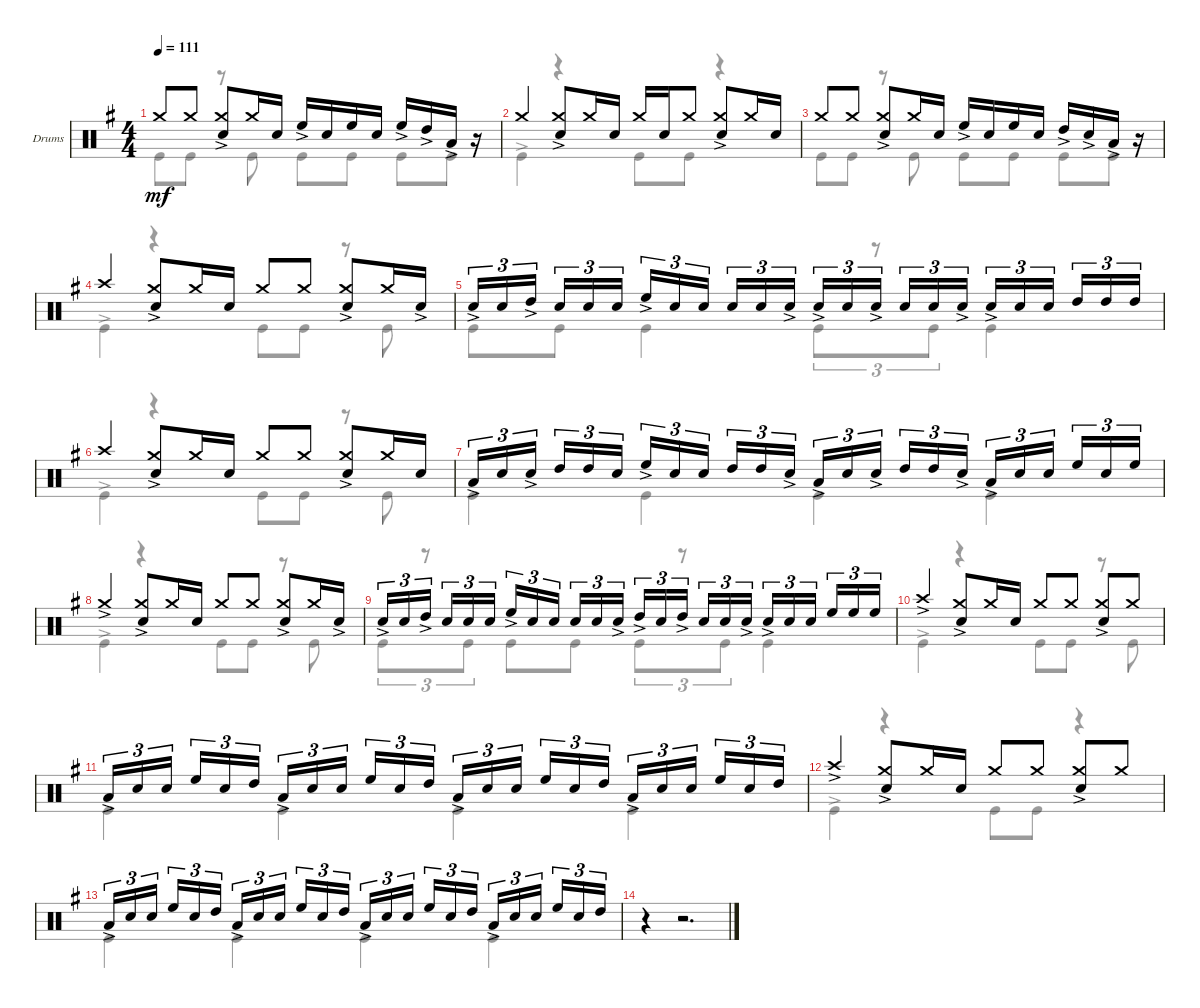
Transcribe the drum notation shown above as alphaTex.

\bracketExtendMode groupsimilarinstruments
\firstSystemTrackNameOrientation horizontal
\otherSystemsTrackNameOrientation horizontal
\track ("Drumkit" "Drums") {instrument percussion}
\staff {score}
\articulation defaults
\voice
\ts (4 4)
\tempo 111
\clef neutral
\ks g "Crash medium (hit)".8{dy mf} "Crash medium (hit)".8
("Crash medium (hit)" "Snare (hit) 2"{ac}).8 "Crash medium (hit)".16 "Snare (hit) 2".16 "High Floor Tom (hit)"{ac}.16 "Snare (hit) 2".16 "High Floor Tom (hit)".16 "Snare (hit) 2".16 "High Floor Tom (hit)"{ac}.16 "High Tom (hit)"{ac}.16 "Low Tom (hit)"{ac}.16 r.16 |
"Crash medium (hit)".4 ("Crash medium (hit)" "Snare (hit) 2"{ac}).8 "Crash medium (hit)".16 "Snare (hit) 2".16 "Crash medium (hit)".16 "Snare (hit) 2".16 "Crash medium (hit)".8 ("Crash medium (hit)" "Snare (hit) 2"{ac}).8 "Crash medium (hit)".16 "Snare (hit) 2".16 |
"Crash medium (hit)".8 "Crash medium (hit)".8 ("Crash medium (hit)" "Snare (hit) 2"{ac}).8 "Crash medium (hit)".16 "Snare (hit) 2".16 "High Floor Tom (hit)"{ac}.16 "Snare (hit) 2".16 "High Floor Tom (hit)".16 "Snare (hit) 2".16 "High Tom (hit)"{ac}.16 "Snare (hit) 2"{ac}.16 "Low Tom (hit)"{ac}.16 r.16 |
"Crash high (hit)".4 ("Crash medium (hit)" "Snare (hit) 2"{ac}).8 "Crash medium (hit)".16 "Snare (hit) 2".16 "Crash medium (hit)".8 "Crash medium (hit)".8 ("Crash medium (hit)" "Snare (hit) 2"{ac}).8 "Crash medium (hit)".16 "Snare (hit) 2"{ac}.16 |
"Snare (hit) 2"{ac}.16{tu (3 2)} "Snare (hit) 2".16{tu (3 2)} "High Tom (hit)"{ac}.16{tu (3 2)} "Snare (hit) 2".16{tu (3 2)} "Snare (hit) 2".16{tu (3 2)} "Snare (hit) 2".16{tu (3 2)} "High Floor Tom (hit)"{ac}.16{tu (3 2)} "Snare (hit) 2".16{tu (3 2)} "Snare (hit) 2".16{tu (3 2)} "Snare (hit) 2".16{tu (3 2)} "Snare (hit) 2".16{tu (3 2)} "Snare (hit) 2"{ac}.16{tu (3 2)} "Snare (hit) 2"{ac}.16{tu (3 2)} "Snare (hit) 2".16{tu (3 2)} "Snare (hit) 2"{ac}.16{tu (3 2)} "Snare (hit) 2".16{tu (3 2)} "Snare (hit) 2".16{tu (3 2)} "Snare (hit) 2"{ac}.16{tu (3 2)} "Snare (hit) 2"{ac}.16{tu (3 2)} "Snare (hit) 2".16{tu (3 2)} "Snare (hit) 2".16{tu (3 2)} "High Tom (hit)".16{tu (3 2)} "High Tom (hit)".16{tu (3 2)} "High Tom (hit)".16{tu (3 2)} |
"Crash high (hit)".4 ("Crash medium (hit)" "Snare (hit) 2"{ac}).8 "Crash medium (hit)".16 "Snare (hit) 2".16 "Crash medium (hit)".8 "Crash medium (hit)".8 ("Crash medium (hit)" "Snare (hit) 2"{ac}).8 "Crash medium (hit)".16 "Snare (hit) 2".16 |
"Low Tom (hit)"{ac}.16{tu (3 2)} "Snare (hit) 2".16{tu (3 2)} "Snare (hit) 2"{ac}.16{tu (3 2)} "High Tom (hit)".16{tu (3 2)} "High Tom (hit)".16{tu (3 2)} "Snare (hit) 2".16{tu (3 2)} "High Floor Tom (hit)"{ac}.16{tu (3 2)} "Snare (hit) 2".16{tu (3 2)} "Snare (hit) 2".16{tu (3 2)} "High Tom (hit)".16{tu (3 2)} "High Tom (hit)".16{tu (3 2)} "Snare (hit) 2"{ac}.16{tu (3 2)} "Low Tom (hit)"{ac}.16{tu (3 2)} "Snare (hit) 2".16{tu (3 2)} "Snare (hit) 2"{ac}.16{tu (3 2)} "High Tom (hit)".16{tu (3 2)} "High Tom (hit)".16{tu (3 2)} "Snare (hit) 2"{ac}.16{tu (3 2)} "Low Tom (hit)"{ac}.16{tu (3 2)} "Snare (hit) 2".16{tu (3 2)} "Snare (hit) 2".16{tu (3 2)} "High Floor Tom (hit)".16{tu (3 2)} "Snare (hit) 2".16{tu (3 2)} "High Floor Tom (hit)".16{tu (3 2)} |
"Crash medium (hit)"{ac}.4 ("Crash medium (hit)" "Snare (hit) 2"{ac}).8 "Crash medium (hit)".16 "Snare (hit) 2".16 "Crash medium (hit)".8 "Crash medium (hit)".8 ("Crash medium (hit)" "Snare (hit) 2"{ac}).8 "Crash medium (hit)".16 "Snare (hit) 2"{ac}.16 |
"Snare (hit) 2"{ac}.16{tu (3 2)} "Snare (hit) 2".16{tu (3 2)} "High Tom (hit)"{ac}.16{tu (3 2)} "Snare (hit) 2".16{tu (3 2)} "Snare (hit) 2".16{tu (3 2)} "Snare (hit) 2".16{tu (3 2)} "High Floor Tom (hit)"{ac}.16{tu (3 2)} "Snare (hit) 2".16{tu (3 2)} "Snare (hit) 2".16{tu (3 2)} "Snare (hit) 2".16{tu (3 2)} "Snare (hit) 2".16{tu (3 2)} "Snare (hit) 2"{ac}.16{tu (3 2)} "High Tom (hit)"{ac}.16{tu (3 2)} "Snare (hit) 2".16{tu (3 2)} "High Tom (hit)"{ac}.16{tu (3 2)} "Snare (hit) 2".16{tu (3 2)} "Snare (hit) 2".16{tu (3 2)} "Snare (hit) 2"{ac}.16{tu (3 2)} "Snare (hit) 2"{ac}.16{tu (3 2)} "Snare (hit) 2".16{tu (3 2)} "Snare (hit) 2".16{tu (3 2)} "High Floor Tom (hit)".16{tu (3 2)} "High Floor Tom (hit)".16{tu (3 2)} "High Floor Tom (hit)".16{tu (3 2)} |
"Crash high (hit)"{ac}.4 ("Crash medium (hit)" "Snare (hit) 2"{ac}).8 "Crash medium (hit)".16 "Snare (hit) 2".16 "Crash medium (hit)".8 "Crash medium (hit)".8 ("Crash medium (hit)" "Snare (hit) 2"{ac}).8 "Crash medium (hit)".8 |
"Low Tom (hit)"{ac}.16{tu (3 2)} "Snare (hit) 2".16{tu (3 2)} "Snare (hit) 2".16{tu (3 2)} "High Floor Tom (hit)".16{tu (3 2)} "Snare (hit) 2".16{tu (3 2)} "High Tom (hit)".16{tu (3 2)} "Low Tom (hit)"{ac}.16{tu (3 2)} "Snare (hit) 2".16{tu (3 2)} "Snare (hit) 2".16{tu (3 2)} "High Floor Tom (hit)".16{tu (3 2)} "Snare (hit) 2".16{tu (3 2)} "High Tom (hit)".16{tu (3 2)} "Low Tom (hit)"{ac}.16{tu (3 2)} "Snare (hit) 2".16{tu (3 2)} "Snare (hit) 2".16{tu (3 2)} "High Floor Tom (hit)".16{tu (3 2)} "Snare (hit) 2".16{tu (3 2)} "High Tom (hit)".16{tu (3 2)} "Low Tom (hit)"{ac}.16{tu (3 2)} "Snare (hit) 2".16{tu (3 2)} "Snare (hit) 2".16{tu (3 2)} "High Floor Tom (hit)".16{tu (3 2)} "Snare (hit) 2".16{tu (3 2)} "High Tom (hit)".16{tu (3 2)} |
"Crash high (hit)"{ac}.4 ("Crash medium (hit)" "Snare (hit) 2"{ac}).8 "Crash medium (hit)".16 "Snare (hit) 2".16 "Crash medium (hit)".8 "Crash medium (hit)".8 ("Crash medium (hit)" "Snare (hit) 2"{ac}).8 "Crash medium (hit)".8 |
"Low Tom (hit)"{ac}.16{tu (3 2)} "Snare (hit) 2".16{tu (3 2)} "Snare (hit) 2".16{tu (3 2)} "High Floor Tom (hit)".16{tu (3 2)} "Snare (hit) 2".16{tu (3 2)} "High Tom (hit)".16{tu (3 2)} "Low Tom (hit)"{ac}.16{tu (3 2)} "Snare (hit) 2".16{tu (3 2)} "Snare (hit) 2".16{tu (3 2)} "High Floor Tom (hit)".16{tu (3 2)} "Snare (hit) 2".16{tu (3 2)} "High Tom (hit)".16{tu (3 2)} "Low Tom (hit)"{ac}.16{tu (3 2)} "Snare (hit) 2".16{tu (3 2)} "Snare (hit) 2".16{tu (3 2)} "High Floor Tom (hit)".16{tu (3 2)} "Snare (hit) 2".16{tu (3 2)} "High Tom (hit)".16{tu (3 2)} "Low Tom (hit)"{ac}.16{tu (3 2)} "Snare (hit) 2".16{tu (3 2)} "Snare (hit) 2".16{tu (3 2)} "High Floor Tom (hit)".16{tu (3 2)} "Snare (hit) 2".16{tu (3 2)} "High Tom (hit)".16{tu (3 2)} |
r.4 r.2{d}
\voice
\clef neutral
\ottava regular
\simile none
\ks g "Kick (hit)".8{dy mf} "Kick (hit)".8
r.8 "Kick (hit)".8 "Kick (hit)".8 "Kick (hit)".8 "Kick (hit)".8 "Kick (hit)".8 |
"Kick (hit)"{ac}.4 r.4 "Kick (hit)".8 "Kick (hit)".8 r.4 |
"Kick (hit)".8 "Kick (hit)".8 r.8 "Kick (hit)".8 "Kick (hit)".8 "Kick (hit)".8 "Kick (hit)".8 "Kick (hit)".8 |
"Kick (hit)"{ac}.4 r.4 "Kick (hit)".8 "Kick (hit)".8 r.8 "Kick (hit)".8 |
"Kick (hit)".8 "Kick (hit)".8 "Kick (hit)".4 "Kick (hit)".8{tu (3 2)} r.8{tu (3 2)} "Kick (hit)".8{tu (3 2)} "Kick (hit)".4 |
"Kick (hit)"{ac}.4 r.4 "Kick (hit)".8 "Kick (hit)".8 r.8 "Kick (hit)".8 |
"Kick (hit)".4 "Kick (hit)".4 "Kick (hit)".4 "Kick (hit)".4 |
"Kick (hit)"{ac}.4 r.4 "Kick (hit)".8 "Kick (hit)".8 r.8 "Kick (hit)".8 |
"Kick (hit)".8{tu (3 2)} r.8{tu (3 2)} "Kick (hit)".8{tu (3 2)} "Kick (hit)".8 "Kick (hit)".8 "Kick (hit)".8{tu (3 2)} r.8{tu (3 2)} "Kick (hit)".8{tu (3 2)} "Kick (hit)".4 |
"Kick (hit)"{ac}.4 r.4 "Kick (hit)".8 "Kick (hit)".8 r.8 "Kick (hit)".8 |
"Kick (hit)".4 "Kick (hit)".4 "Kick (hit)".4 "Kick (hit)".4 |
"Kick (hit)"{ac}.4 r.4 "Kick (hit)".8 "Kick (hit)".8 r.4 |
"Kick (hit)".4 "Kick (hit)".4 "Kick (hit)".4 "Kick (hit)".4 |
